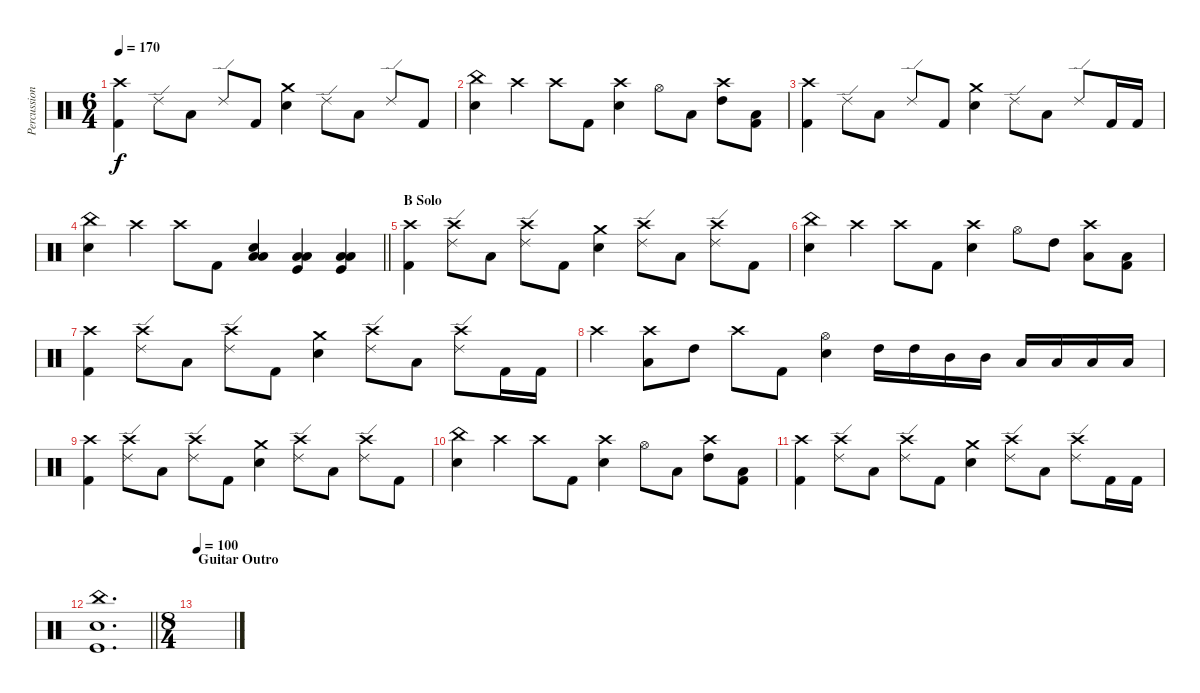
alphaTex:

\track ("Percussions" "Percussion") {instrument percussion}
\staff {score}
\articulation defaults
\ts (6 4)
\tempo 170
\clef neutral
\ks c
("Crash high (hit)" "Kick (hit) 2").4{dy f} "Ride (edge) 2".8 "Low Tom (hit)".8 "Ride (edge) 2".8 "Kick (hit) 2".8 ("Crash medium (hit)" "Snare (hit) 2").4 "Ride (edge) 2".8 "Low Floor Tom (hit)".8 "Ride (edge) 2".8 "Kick (hit) 2".8 |
("China (hit)" "Snare (hit) 2").4 "Crash high (hit)".4 "Crash high (hit)".8 "Kick (hit) 2".8 ("Crash high (hit)" "Snare (hit) 2").4 "Hi-Hat (open)".8 "Low Tom (hit)".8 ("Crash high (hit)" "High Tom (hit)").8 ("Low Floor Tom (hit)" "Kick (hit) 2").8 |
("Crash high (hit)" "Kick (hit) 2").4 "Ride (edge) 2".8 "Low Tom (hit)".8 "Ride (edge) 2".8 "Kick (hit) 2".8 ("Crash medium (hit)" "Snare (hit) 2").4 "Ride (edge) 2".8 "Low Floor Tom (hit)".8 "Ride (edge) 2".8 "Kick (hit) 2".16 "Kick (hit) 2".16 |
\barLineRight lightlight
("China (hit)" "Snare (hit) 2").4 "Crash high (hit)".4 "Crash high (hit)".8 "Kick (hit) 2".8 ("Low Tom (hit)" "Snare (hit) 2" "Low Floor Tom (hit)").4 ("Low Tom (hit)" "Kick (hit)" "Low Floor Tom (hit)").4 ("Low Tom (hit)" "Kick (hit)" "Low Floor Tom (hit)").4 |
\section ("" "B Solo")
("Crash high (hit)" "Kick (hit) 2").4 ("Crash high (hit)" "Ride (edge) 2").8 "Low Tom (hit)".8 ("Crash high (hit)" "Ride (edge) 2").8 "Kick (hit) 2".8 ("Crash medium (hit)" "Snare (hit) 2").4 ("Crash high (hit)" "Ride (edge) 2").8 "Low Floor Tom (hit)".8 ("Crash high (hit)" "Ride (edge) 2").8 "Kick (hit) 2".8 |
("China (hit)" "Snare (hit) 2").4 "Crash high (hit)".4 "Crash high (hit)".8 "Kick (hit) 2".8 ("Crash high (hit)" "Snare (hit) 2").4 "Hi-Hat (open)".8 "High Tom (hit)".8 ("Crash high (hit)" "Low Tom (hit)").8 ("Low Floor Tom (hit)" "Kick (hit) 2").8 |
("Crash high (hit)" "Kick (hit) 2").4 ("Crash high (hit)" "Ride (edge) 2").8 "Low Tom (hit)".8 ("Crash high (hit)" "Ride (edge) 2").8 "Kick (hit) 2".8 ("Crash medium (hit)" "Snare (hit) 2").4 ("Crash high (hit)" "Ride (edge) 2").8 "Low Floor Tom (hit)".8 ("Crash high (hit)" "Ride (edge) 2").8 "Kick (hit) 2".16 "Kick (hit) 2".16 |
"Crash high (hit)".4 ("Crash high (hit)" "Low Tom (hit)").8 "High Tom (hit)".8 "Crash high (hit)".8 "Kick (hit) 2".8 ("Hi-Hat (open)" "Snare (hit) 2").4 "High Tom (hit)".16 "High Tom (hit)".16 "Mid Tom (hit)".16 "Mid Tom (hit)".16 "Low Tom (hit)".16 "Low Tom (hit)".16 "Low Floor Tom (hit)".16 "Low Floor Tom (hit)".16 |
("Crash high (hit)" "Kick (hit) 2").4 ("Crash high (hit)" "Ride (edge) 2").8 "Low Tom (hit)".8 ("Crash high (hit)" "Ride (edge) 2").8 "Kick (hit) 2".8 ("Crash medium (hit)" "Snare (hit) 2").4 ("Crash high (hit)" "Ride (edge) 2").8 "Low Floor Tom (hit)".8 ("Crash high (hit)" "Ride (edge) 2").8 "Kick (hit) 2".8 |
("China (hit)" "Snare (hit) 2").4 "Crash high (hit)".4 "Crash high (hit)".8 "Kick (hit) 2".8 ("Crash high (hit)" "Snare (hit) 2").4 "Hi-Hat (open)".8 "Low Tom (hit)".8 ("Crash high (hit)" "High Tom (hit)").8 ("Low Floor Tom (hit)" "Kick (hit) 2").8 |
("Crash high (hit)" "Kick (hit) 2").4 ("Crash high (hit)" "Ride (edge) 2").8 "Low Tom (hit)".8 ("Crash high (hit)" "Ride (edge) 2").8 "Kick (hit) 2".8 ("Crash medium (hit)" "Snare (hit) 2").4 ("Crash high (hit)" "Ride (edge) 2").8 "Low Floor Tom (hit)".8 ("Crash high (hit)" "Ride (edge) 2").8 "Kick (hit) 2".16 "Kick (hit) 2".16 |
\barLineRight lightlight
("China (hit)" "Snare (hit) 2" "Kick (hit)").1{d} |
\ts (8 4)
\section ("" "Guitar Outro")
\tempo 100
